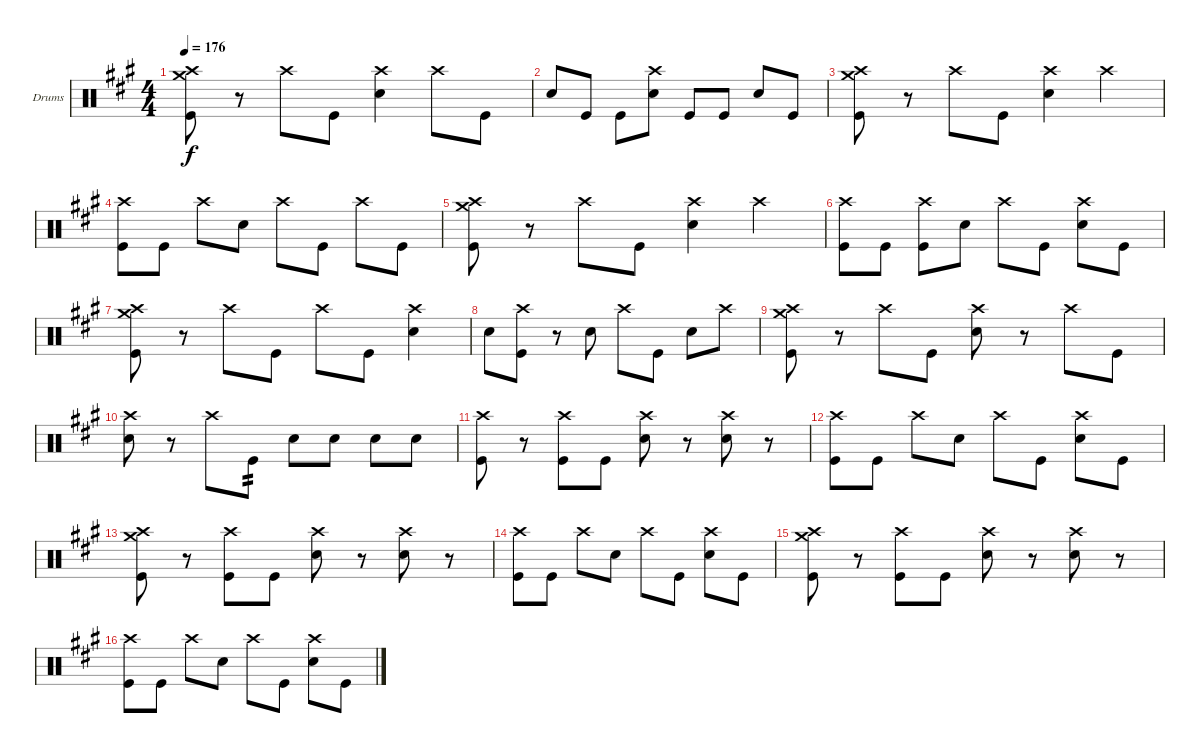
\defaultSystemsLayout 4
\bracketExtendMode groupsimilarinstruments
\firstSystemTrackNameOrientation horizontal
\otherSystemsTrackNameOrientation horizontal
\track ("Drumkit" "Drums") {instrument percussion}
\staff {score}
\articulation defaults
\ts (4 4)
\tempo 176
\clef neutral
\scale
0.333333
\ks a
("Crash high (hit)" "Crash medium (hit)" "Kick (hit)").8{dy f} r.8 "Crash high (hit)".8 "Kick (hit)".8 ("Crash high (hit)" "Snare (hit) 2").4 "Crash high (hit)".8 "Kick (hit)".8 |
\scale
0.333333 "Snare (hit) 2".8 "Kick (hit)".8 "Kick (hit)".8 ("Crash high (hit)" "Snare (hit) 2").8 "Kick (hit)".8 "Kick (hit)".8 "Snare (hit) 2".8 "Kick (hit)".8 |
\scale
0.333333 ("Crash high (hit)" "Crash medium (hit)" "Kick (hit)").8 r.8 "Crash high (hit)".8 "Kick (hit)".8 ("Crash high (hit)" "Snare (hit) 2").4 "Crash high (hit)".4 |
\scale
0.333333 ("Crash high (hit)" "Kick (hit)").8 "Kick (hit)".8 "Crash high (hit)".8 "Snare (hit) 2".8 "Crash high (hit)".8 "Kick (hit)".8 "Crash high (hit)".8 "Kick (hit)".8 |
\scale
0.333333 ("Crash high (hit)" "Crash medium (hit)" "Kick (hit)").8 r.8 "Crash high (hit)".8 "Kick (hit)".8 ("Crash high (hit)" "Snare (hit) 2").4 "Crash high (hit)".4 |
\scale
0.333333 ("Crash high (hit)" "Kick (hit)").8 "Kick (hit)".8 ("Crash high (hit)" "Kick (hit)").8 "Snare (hit) 2".8 "Crash high (hit)".8 "Kick (hit)".8 ("Crash high (hit)" "Snare (hit) 2").8 "Kick (hit)".8 |
\scale
0.333333 ("Crash high (hit)" "Crash medium (hit)" "Kick (hit)").8 r.8 "Crash high (hit)".8 "Kick (hit)".8 "Crash high (hit)".8 "Kick (hit)".8 ("Crash high (hit)" "Snare (hit) 2").4 |
\scale
0.333333 "Snare (hit) 2".8 ("Crash high (hit)" "Kick (hit)").8 r.8 "Snare (hit) 2".8 "Crash high (hit)".8 "Kick (hit)".8 "Snare (hit) 2".8 "Crash high (hit)".8 |
\scale
0.333333 ("Crash high (hit)" "Crash medium (hit)" "Kick (hit)").8 r.8 "Crash high (hit)".8 "Kick (hit)".8 ("Crash high (hit)" "Snare (hit) 2").8 r.8 "Crash high (hit)".8 "Kick (hit)".8 |
\scale
0.333333 ("Crash high (hit)" "Snare (hit) 2").8 r.8 "Crash high (hit)".8 "Kick (hit)".8{tp 2} "Snare (hit) 2".8 "Snare (hit) 2".8 "Snare (hit) 2".8 "Snare (hit) 2".8 |
\scale
0.333333 ("Crash high (hit)" "Kick (hit)").8 r.8 ("Crash high (hit)" "Kick (hit)").8 "Kick (hit)".8 ("Crash high (hit)" "Snare (hit) 2").8 r.8 ("Crash high (hit)" "Snare (hit) 2").8 r.8 |
\scale
0.333333 ("Crash high (hit)" "Kick (hit)").8 "Kick (hit)".8 "Crash high (hit)".8 "Snare (hit) 2".8 "Crash high (hit)".8 "Kick (hit)".8 ("Crash high (hit)" "Snare (hit) 2").8 "Kick (hit)".8 |
\scale
0.333333 ("Crash high (hit)" "Crash medium (hit)" "Kick (hit)").8 r.8 ("Crash high (hit)" "Kick (hit)").8 "Kick (hit)".8 ("Crash high (hit)" "Snare (hit) 2").8 r.8 ("Crash high (hit)" "Snare (hit) 2").8 r.8 |
\scale
0.333333 ("Crash high (hit)" "Kick (hit)").8 "Kick (hit)".8 "Crash high (hit)".8 "Snare (hit) 2".8 "Crash high (hit)".8 "Kick (hit)".8 ("Crash high (hit)" "Snare (hit) 2").8 "Kick (hit)".8 |
\scale
0.333333 ("Crash high (hit)" "Crash medium (hit)" "Kick (hit)").8 r.8 ("Crash high (hit)" "Kick (hit)").8 "Kick (hit)".8 ("Crash high (hit)" "Snare (hit) 2").8 r.8 ("Crash high (hit)" "Snare (hit) 2").8 r.8 |
\scale
0.333333 ("Crash high (hit)" "Kick (hit)").8 "Kick (hit)".8 "Crash high (hit)".8 "Snare (hit) 2".8 "Crash high (hit)".8 "Kick (hit)".8 ("Crash high (hit)" "Snare (hit) 2").8 "Kick (hit)".8
